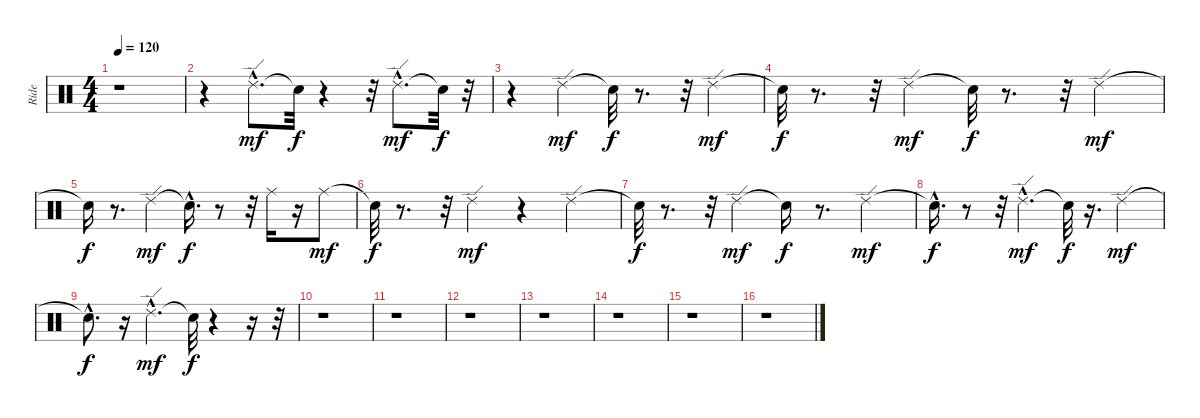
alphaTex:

\track ("Ride" "Ride") {instrument percussion}
\staff {score}
\articulation defaults
\ts (4 4)
\tempo 120
\clef neutral
\ks c
r.1{dy mf} |
r.4 "Ride (edge) 2"{hac}.8{d} "Snare (hit)"{t}.32{dy f} r.4 r.32 "Ride (edge) 2"{hac}.8{d dy mf} "Snare (hit)"{t}.32{dy f} r.32 |
r.4 "Ride (edge) 2".4{dy mf} "Snare (hit)"{t}.32{dy f} r.8{d} r.32 "Ride (edge) 2".4{dy mf} |
"Snare (hit)"{t}.32{dy f} r.8{d} r.32 "Ride (edge) 2".4{dy mf} "Snare (hit)"{t}.32{dy f} r.8{d} r.32 "Ride (edge) 2".4{dy mf} |
"Snare (hit)"{t}.16{dy f} r.8{d} "Ride (edge) 2".4{dy mf} "Snare (hit)"{hac t}.16{d dy f} r.8 r.32 "Ride (middle)".16 r.16 "Ride (middle)".8{dy mf} |
"Snare (hit)"{t}.32{dy f} r.8{d} r.32 "Ride (edge) 2".4{dy mf} r.4 "Ride (edge) 2".4 |
"Snare (hit)"{t}.32{dy f} r.8{d} r.32 "Ride (edge) 2".4{dy mf} "Snare (hit)"{t}.16{dy f} r.8{d} "Ride (edge) 2".4{dy mf} |
"Snare (hit)"{hac t}.16{d dy f} r.8 r.32 "Ride (edge) 2"{hac}.4{d dy mf} "Snare (hit)"{t}.32{dy f} r.16{d} "Ride (edge) 2".4{dy mf} |
"Snare (hit)"{hac t}.8{d dy f} r.16 "Ride (edge) 2"{hac}.4{d dy mf} "Snare (hit)"{t}.32{dy f} r.4 r.16 r.32 |
r.1 |
r.1 |
r.1 |
r.1 |
r.1 |
r.1 |
r.1
